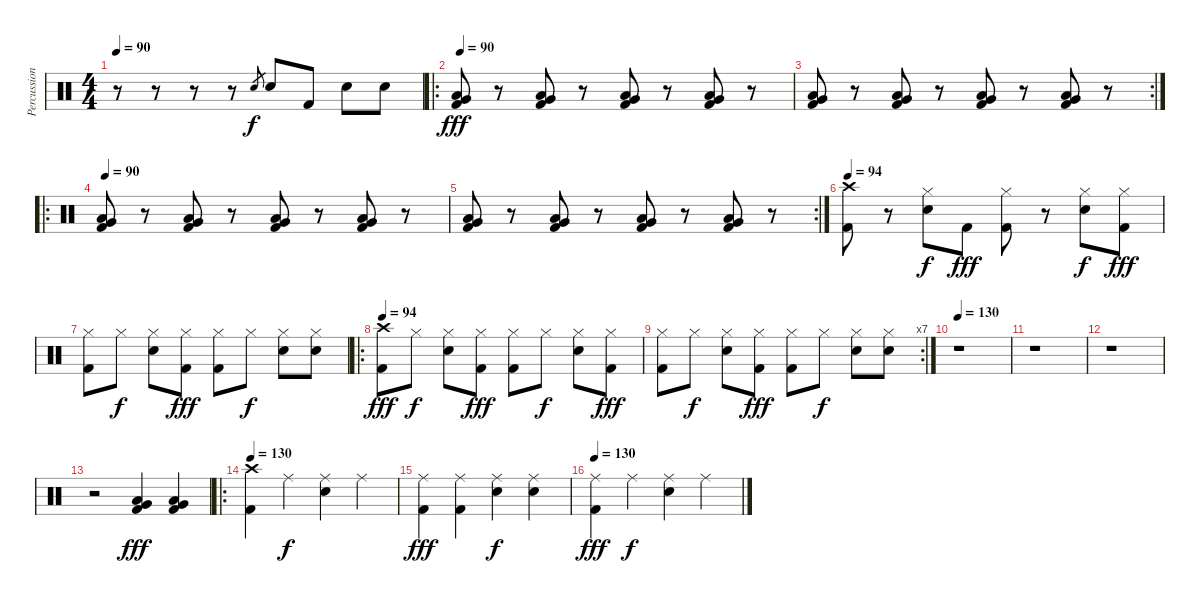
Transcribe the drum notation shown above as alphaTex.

\track ("Percussion" "Percussion") {instrument percussion}
\staff {score}
\articulation defaults
\ts (4 4)
\tempo 90
\clef neutral
\ks c
r.8{dy fff} r.8 r.8 r.8 "Snare (hit) 2".8{gr dy f} "Snare (hit) 2".8 "Kick (hit) 2".8 "Snare (hit) 2".8 "Snare (hit) 2".8 |
\ro
\tempo 90
("Low Tom (hit)" "Very Low Tom (hit)" "Kick (hit) 2").8{dy fff} r.8 ("Low Tom (hit)" "Very Low Tom (hit)" "Kick (hit) 2").8 r.8 ("Low Tom (hit)" "Very Low Tom (hit)" "Kick (hit) 2").8 r.8 ("Low Tom (hit)" "Very Low Tom (hit)" "Kick (hit) 2").8 r.8 |
\rc 2
("Low Tom (hit)" "Very Low Tom (hit)" "Kick (hit) 2").8 r.8 ("Low Tom (hit)" "Very Low Tom (hit)" "Kick (hit) 2").8 r.8 ("Low Tom (hit)" "Very Low Tom (hit)" "Kick (hit) 2").8 r.8 ("Low Tom (hit)" "Very Low Tom (hit)" "Kick (hit) 2").8 r.8 |
\ro
\tempo 90
("Low Tom (hit)" "Very Low Tom (hit)" "Kick (hit) 2").8 r.8 ("Low Tom (hit)" "Very Low Tom (hit)" "Kick (hit) 2").8 r.8 ("Low Tom (hit)" "Very Low Tom (hit)" "Kick (hit) 2").8 r.8 ("Low Tom (hit)" "Very Low Tom (hit)" "Kick (hit) 2").8 r.8 |
\rc 2
("Low Tom (hit)" "Very Low Tom (hit)" "Kick (hit) 2").8 r.8 ("Low Tom (hit)" "Very Low Tom (hit)" "Kick (hit) 2").8 r.8 ("Low Tom (hit)" "Very Low Tom (hit)" "Kick (hit) 2").8 r.8 ("Low Tom (hit)" "Very Low Tom (hit)" "Kick (hit) 2").8 r.8 |
\tempo 90
\tempo 94
("Crash high (hit)" "Kick (hit) 2").8 r.8 ("Hi-Hat (closed)" "Snare (hit) 2").8{dy f} "Kick (hit) 2".8{dy fff} ("Hi-Hat (closed)" "Kick (hit) 2").8 r.8 ("Hi-Hat (closed)" "Snare (hit) 2").8{dy f} ("Hi-Hat (closed)" "Kick (hit) 2").8{dy fff} |
("Hi-Hat (closed)" "Kick (hit) 2").8 "Hi-Hat (closed)".8{dy f} ("Hi-Hat (closed)" "Snare (hit) 2").8 ("Hi-Hat (closed)" "Kick (hit) 2").8{dy fff} ("Hi-Hat (closed)" "Kick (hit) 2").8 "Hi-Hat (closed)".8{dy f} ("Hi-Hat (closed)" "Snare (hit) 2").8 ("Hi-Hat (closed)" "Snare (hit) 2").8 |
\ro
\tempo 90
\tempo 94
("Crash high (hit)" "Kick (hit) 2").8{dy fff} "Hi-Hat (closed)".8{dy f} ("Hi-Hat (closed)" "Snare (hit) 2").8 ("Hi-Hat (closed)" "Kick (hit) 2").8{dy fff} ("Hi-Hat (closed)" "Kick (hit) 2").8 "Hi-Hat (closed)".8{dy f} ("Hi-Hat (closed)" "Snare (hit) 2").8 ("Hi-Hat (closed)" "Kick (hit) 2").8{dy fff} |
\rc 7
("Hi-Hat (closed)" "Kick (hit) 2").8 "Hi-Hat (closed)".8{dy f} ("Hi-Hat (closed)" "Snare (hit) 2").8 ("Hi-Hat (closed)" "Kick (hit) 2").8{dy fff} ("Hi-Hat (closed)" "Kick (hit) 2").8 "Hi-Hat (closed)".8{dy f} ("Hi-Hat (closed)" "Snare (hit) 2").8 ("Hi-Hat (closed)" "Snare (hit) 2").8 |
\tempo 130
r.1 |
r.1 |
r.1 |
r.2 ("Low Tom (hit)" "Very Low Tom (hit)" "Kick (hit) 2").4{dy fff} ("Low Tom (hit)" "Very Low Tom (hit)" "Kick (hit) 2").4 |
\ro
\tempo 130
("Crash high (hit)" "Kick (hit) 2").4 "Ride (middle)".4{dy f} ("Ride (middle)" "Snare (hit) 2").4 "Ride (middle)".4 |
("Ride (middle)" "Kick (hit) 2").4{dy fff} ("Ride (middle)" "Kick (hit) 2").4 ("Ride (middle)" "Snare (hit) 2").4{dy f} ("Ride (middle)" "Snare (hit) 2").4 |
\tempo 130
("Ride (middle)" "Kick (hit) 2").4{dy fff} "Ride (middle)".4{dy f} ("Ride (middle)" "Snare (hit) 2").4 "Ride (middle)".4
